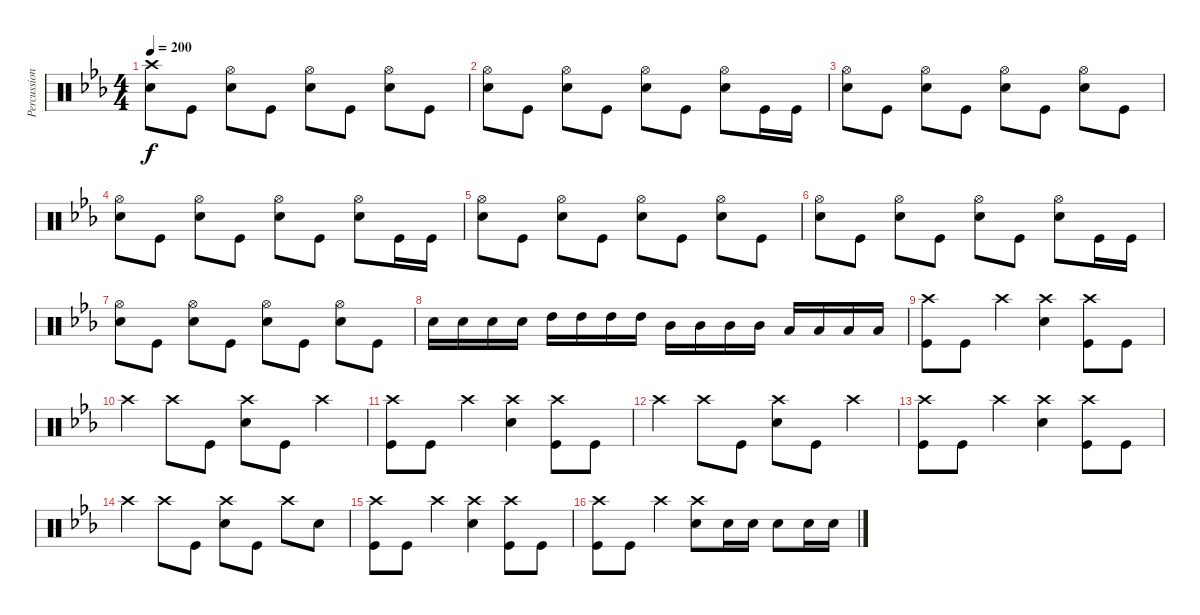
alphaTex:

\track ("Percussion" "Percussion") {instrument percussion}
\staff {score}
\articulation defaults
\ts (4 4)
\tempo 200
\clef neutral
\ks eb
("Crash high (hit)" "Snare (hit) 2").8{dy f} "Kick (hit)".8 ("Hi-Hat (open)" "Snare (hit) 2").8 "Kick (hit)".8 ("Hi-Hat (open)" "Snare (hit) 2").8 "Kick (hit)".8 ("Hi-Hat (open)" "Snare (hit) 2").8 "Kick (hit)".8 |
("Hi-Hat (open)" "Snare (hit) 2").8 "Kick (hit)".8 ("Hi-Hat (open)" "Snare (hit) 2").8 "Kick (hit)".8 ("Hi-Hat (open)" "Snare (hit) 2").8 "Kick (hit)".8 ("Hi-Hat (open)" "Snare (hit) 2").8 "Kick (hit)".16 "Kick (hit)".16 |
("Hi-Hat (open)" "Snare (hit) 2").8 "Kick (hit)".8 ("Hi-Hat (open)" "Snare (hit) 2").8 "Kick (hit)".8 ("Hi-Hat (open)" "Snare (hit) 2").8 "Kick (hit)".8 ("Hi-Hat (open)" "Snare (hit) 2").8 "Kick (hit)".8 |
("Hi-Hat (open)" "Snare (hit) 2").8 "Kick (hit)".8 ("Hi-Hat (open)" "Snare (hit) 2").8 "Kick (hit)".8 ("Hi-Hat (open)" "Snare (hit) 2").8 "Kick (hit)".8 ("Hi-Hat (open)" "Snare (hit) 2").8 "Kick (hit)".16 "Kick (hit)".16 |
("Hi-Hat (open)" "Snare (hit) 2").8 "Kick (hit)".8 ("Hi-Hat (open)" "Snare (hit) 2").8 "Kick (hit)".8 ("Hi-Hat (open)" "Snare (hit) 2").8 "Kick (hit)".8 ("Hi-Hat (open)" "Snare (hit) 2").8 "Kick (hit)".8 |
("Hi-Hat (open)" "Snare (hit) 2").8 "Kick (hit)".8 ("Hi-Hat (open)" "Snare (hit) 2").8 "Kick (hit)".8 ("Hi-Hat (open)" "Snare (hit) 2").8 "Kick (hit)".8 ("Hi-Hat (open)" "Snare (hit) 2").8 "Kick (hit)".16 "Kick (hit)".16 |
("Hi-Hat (open)" "Snare (hit) 2").8 "Kick (hit)".8 ("Hi-Hat (open)" "Snare (hit) 2").8 "Kick (hit)".8 ("Hi-Hat (open)" "Snare (hit) 2").8 "Kick (hit)".8 ("Hi-Hat (open)" "Snare (hit) 2").8 "Kick (hit)".8 |
"Snare (hit) 2".16 "Snare (hit) 2".16 "Snare (hit) 2".16 "Snare (hit) 2".16 "High Tom (hit)".16 "High Tom (hit)".16 "High Tom (hit)".16 "High Tom (hit)".16 "Mid Tom (hit)".16 "Mid Tom (hit)".16 "Mid Tom (hit)".16 "Mid Tom (hit)".16 "Low Tom (hit)".16 "Low Tom (hit)".16 "Low Tom (hit)".16 "Low Tom (hit)".16 |
("Crash high (hit)" "Kick (hit)").8 "Kick (hit)".8 "Crash high (hit)".4 ("Crash high (hit)" "Snare (hit) 2").4 ("Crash high (hit)" "Kick (hit)").8 "Kick (hit)".8 |
"Crash high (hit)".4 "Crash high (hit)".8 "Kick (hit)".8 ("Crash high (hit)" "Snare (hit) 2").8 "Kick (hit)".8 "Crash high (hit)".4 |
("Crash high (hit)" "Kick (hit)").8 "Kick (hit)".8 "Crash high (hit)".4 ("Crash high (hit)" "Snare (hit) 2").4 ("Crash high (hit)" "Kick (hit)").8 "Kick (hit)".8 |
"Crash high (hit)".4 "Crash high (hit)".8 "Kick (hit)".8 ("Crash high (hit)" "Snare (hit) 2").8 "Kick (hit)".8 "Crash high (hit)".4 |
("Crash high (hit)" "Kick (hit)").8 "Kick (hit)".8 "Crash high (hit)".4 ("Crash high (hit)" "Snare (hit) 2").4 ("Crash high (hit)" "Kick (hit)").8 "Kick (hit)".8 |
"Crash high (hit)".4 "Crash high (hit)".8 "Kick (hit)".8 ("Crash high (hit)" "Snare (hit) 2").8 "Kick (hit)".8 "Crash high (hit)".8 "Snare (hit) 2".8 |
("Crash high (hit)" "Kick (hit)").8 "Kick (hit)".8 "Crash high (hit)".4 ("Crash high (hit)" "Snare (hit) 2").4 ("Crash high (hit)" "Kick (hit)").8 "Kick (hit)".8 |
("Crash high (hit)" "Kick (hit)").8 "Kick (hit)".8 "Crash high (hit)".4 ("Crash high (hit)" "Snare (hit) 2").8 "Snare (hit) 2".16 "Snare (hit) 2".16 "Snare (hit) 2".8 "Snare (hit) 2".16 "Snare (hit) 2".16
